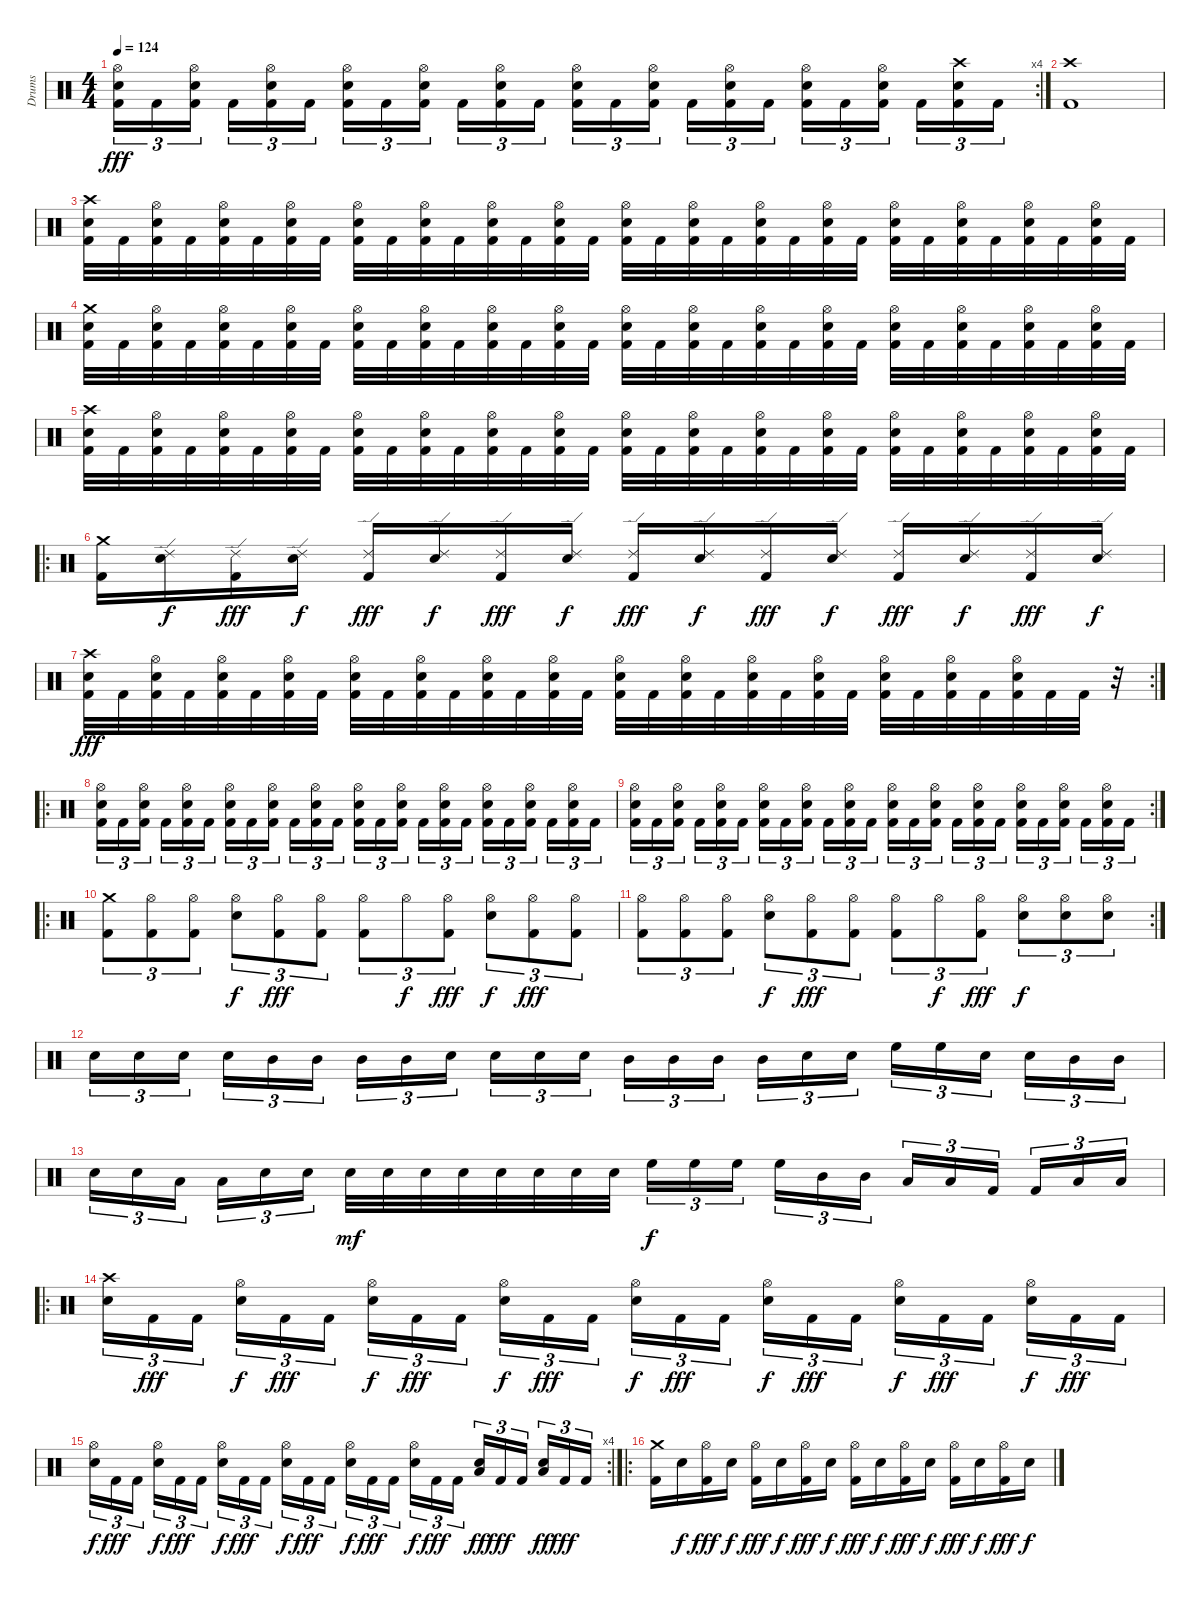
\track ("Drums" "Drums") {instrument percussion}
\staff {score}
\articulation defaults
\rc 4
\ts (4 4)
\tempo 124
\clef neutral
\ks c
("Hi-Hat (open)" "Electric Snare (hit)" "Kick (hit) 2").16{tu (3 2) dy fff} "Kick (hit) 2".16{tu (3 2)} ("Hi-Hat (open)" "Electric Snare (hit)" "Kick (hit) 2").16{tu (3 2)} "Kick (hit) 2".16{tu (3 2)} ("Hi-Hat (open)" "Electric Snare (hit)" "Kick (hit) 2").16{tu (3 2)} "Kick (hit) 2".16{tu (3 2)} ("Hi-Hat (open)" "Electric Snare (hit)" "Kick (hit) 2").16{tu (3 2)} "Kick (hit) 2".16{tu (3 2)} ("Hi-Hat (open)" "Electric Snare (hit)" "Kick (hit) 2").16{tu (3 2)} "Kick (hit) 2".16{tu (3 2)} ("Hi-Hat (open)" "Electric Snare (hit)" "Kick (hit) 2").16{tu (3 2)} "Kick (hit) 2".16{tu (3 2)} ("Hi-Hat (open)" "Electric Snare (hit)" "Kick (hit) 2").16{tu (3 2)} "Kick (hit) 2".16{tu (3 2)} ("Hi-Hat (open)" "Electric Snare (hit)" "Kick (hit) 2").16{tu (3 2)} "Kick (hit) 2".16{tu (3 2)} ("Hi-Hat (open)" "Electric Snare (hit)" "Kick (hit) 2").16{tu (3 2)} "Kick (hit) 2".16{tu (3 2)} ("Hi-Hat (open)" "Electric Snare (hit)" "Kick (hit) 2").16{tu (3 2)} "Kick (hit) 2".16{tu (3 2)} ("Hi-Hat (open)" "Electric Snare (hit)" "Kick (hit) 2").16{tu (3 2)} "Kick (hit) 2".16{tu (3 2)} ("Crash high (hit)" "Electric Snare (hit)" "Kick (hit) 2").16{tu (3 2)} "Kick (hit) 2".16{tu (3 2)} |
("Crash high (hit)" "Kick (hit) 2").1 |
("Crash high (hit)" "Electric Snare (hit)" "Kick (hit) 2").32 "Kick (hit) 2".32 ("Hi-Hat (open)" "Electric Snare (hit)" "Kick (hit) 2").32 "Kick (hit) 2".32 ("Hi-Hat (open)" "Electric Snare (hit)" "Kick (hit) 2").32 "Kick (hit) 2".32 ("Hi-Hat (open)" "Electric Snare (hit)" "Kick (hit) 2").32 "Kick (hit) 2".32 ("Hi-Hat (open)" "Electric Snare (hit)" "Kick (hit) 2").32 "Kick (hit) 2".32 ("Hi-Hat (open)" "Electric Snare (hit)" "Kick (hit) 2").32 "Kick (hit) 2".32 ("Hi-Hat (open)" "Electric Snare (hit)" "Kick (hit) 2").32 "Kick (hit) 2".32 ("Hi-Hat (open)" "Electric Snare (hit)" "Kick (hit) 2").32 "Kick (hit) 2".32 ("Hi-Hat (open)" "Electric Snare (hit)" "Kick (hit) 2").32 "Kick (hit) 2".32 ("Hi-Hat (open)" "Electric Snare (hit)" "Kick (hit) 2").32 "Kick (hit) 2".32 ("Hi-Hat (open)" "Electric Snare (hit)" "Kick (hit) 2").32 "Kick (hit) 2".32 ("Hi-Hat (open)" "Electric Snare (hit)" "Kick (hit) 2").32 "Kick (hit) 2".32 ("Hi-Hat (open)" "Electric Snare (hit)" "Kick (hit) 2").32 "Kick (hit) 2".32 ("Hi-Hat (open)" "Electric Snare (hit)" "Kick (hit) 2").32 "Kick (hit) 2".32 ("Hi-Hat (open)" "Electric Snare (hit)" "Kick (hit) 2").32 "Kick (hit) 2".32 ("Hi-Hat (open)" "Electric Snare (hit)" "Kick (hit) 2").32 "Kick (hit) 2".32 |
("Crash medium (hit)" "Electric Snare (hit)" "Kick (hit) 2").32 "Kick (hit) 2".32 ("Hi-Hat (open)" "Electric Snare (hit)" "Kick (hit) 2").32 "Kick (hit) 2".32 ("Hi-Hat (open)" "Electric Snare (hit)" "Kick (hit) 2").32 "Kick (hit) 2".32 ("Hi-Hat (open)" "Electric Snare (hit)" "Kick (hit) 2").32 "Kick (hit) 2".32 ("Hi-Hat (open)" "Electric Snare (hit)" "Kick (hit) 2").32 "Kick (hit) 2".32 ("Hi-Hat (open)" "Electric Snare (hit)" "Kick (hit) 2").32 "Kick (hit) 2".32 ("Hi-Hat (open)" "Electric Snare (hit)" "Kick (hit) 2").32 "Kick (hit) 2".32 ("Hi-Hat (open)" "Electric Snare (hit)" "Kick (hit) 2").32 "Kick (hit) 2".32 ("Hi-Hat (open)" "Electric Snare (hit)" "Kick (hit) 2").32 "Kick (hit) 2".32 ("Hi-Hat (open)" "Electric Snare (hit)" "Kick (hit) 2").32 "Kick (hit) 2".32 ("Hi-Hat (open)" "Electric Snare (hit)" "Kick (hit) 2").32 "Kick (hit) 2".32 ("Hi-Hat (open)" "Electric Snare (hit)" "Kick (hit) 2").32 "Kick (hit) 2".32 ("Hi-Hat (open)" "Electric Snare (hit)" "Kick (hit) 2").32 "Kick (hit) 2".32 ("Hi-Hat (open)" "Electric Snare (hit)" "Kick (hit) 2").32 "Kick (hit) 2".32 ("Hi-Hat (open)" "Electric Snare (hit)" "Kick (hit) 2").32 "Kick (hit) 2".32 ("Hi-Hat (open)" "Electric Snare (hit)" "Kick (hit) 2").32 "Kick (hit) 2".32 |
("Crash high (hit)" "Electric Snare (hit)" "Kick (hit) 2").32 "Kick (hit) 2".32 ("Hi-Hat (open)" "Electric Snare (hit)" "Kick (hit) 2").32 "Kick (hit) 2".32 ("Hi-Hat (open)" "Electric Snare (hit)" "Kick (hit) 2").32 "Kick (hit) 2".32 ("Hi-Hat (open)" "Electric Snare (hit)" "Kick (hit) 2").32 "Kick (hit) 2".32 ("Hi-Hat (open)" "Electric Snare (hit)" "Kick (hit) 2").32 "Kick (hit) 2".32 ("Hi-Hat (open)" "Electric Snare (hit)" "Kick (hit) 2").32 "Kick (hit) 2".32 ("Hi-Hat (open)" "Electric Snare (hit)" "Kick (hit) 2").32 "Kick (hit) 2".32 ("Hi-Hat (open)" "Electric Snare (hit)" "Kick (hit) 2").32 "Kick (hit) 2".32 ("Hi-Hat (open)" "Electric Snare (hit)" "Kick (hit) 2").32 "Kick (hit) 2".32 ("Hi-Hat (open)" "Electric Snare (hit)" "Kick (hit) 2").32 "Kick (hit) 2".32 ("Hi-Hat (open)" "Electric Snare (hit)" "Kick (hit) 2").32 "Kick (hit) 2".32 ("Hi-Hat (open)" "Electric Snare (hit)" "Kick (hit) 2").32 "Kick (hit) 2".32 ("Hi-Hat (open)" "Electric Snare (hit)" "Kick (hit) 2").32 "Kick (hit) 2".32 ("Hi-Hat (open)" "Electric Snare (hit)" "Kick (hit) 2").32 "Kick (hit) 2".32 ("Hi-Hat (open)" "Electric Snare (hit)" "Kick (hit) 2").32 "Kick (hit) 2".32 ("Hi-Hat (open)" "Electric Snare (hit)" "Kick (hit) 2").32 "Kick (hit) 2".32 |
\ro
("Crash medium (hit)" "Kick (hit) 2").16 ("Ride (edge) 2" "Electric Snare (hit)").16{dy f} ("Ride (edge) 2" "Kick (hit) 2").16{dy fff} ("Ride (edge) 2" "Electric Snare (hit)").16{dy f} ("Ride (edge) 2" "Kick (hit) 2").16{dy fff} ("Ride (edge) 2" "Electric Snare (hit)").16{dy f} ("Ride (edge) 2" "Kick (hit) 2").16{dy fff} ("Ride (edge) 2" "Electric Snare (hit)").16{dy f} ("Ride (edge) 2" "Kick (hit) 2").16{dy fff} ("Ride (edge) 2" "Electric Snare (hit)").16{dy f} ("Ride (edge) 2" "Kick (hit) 2").16{dy fff} ("Ride (edge) 2" "Electric Snare (hit)").16{dy f} ("Ride (edge) 2" "Kick (hit) 2").16{dy fff} ("Ride (edge) 2" "Electric Snare (hit)").16{dy f} ("Ride (edge) 2" "Kick (hit) 2").16{dy fff} ("Ride (edge) 2" "Electric Snare (hit)").16{dy f} |
\rc 2
("Crash high (hit)" "Electric Snare (hit)" "Kick (hit) 2").32{dy fff} "Kick (hit) 2".32 ("Hi-Hat (open)" "Electric Snare (hit)" "Kick (hit) 2").32 "Kick (hit) 2".32 ("Hi-Hat (open)" "Electric Snare (hit)" "Kick (hit) 2").32 "Kick (hit) 2".32 ("Hi-Hat (open)" "Electric Snare (hit)" "Kick (hit) 2").32 "Kick (hit) 2".32 ("Hi-Hat (open)" "Electric Snare (hit)" "Kick (hit) 2").32 "Kick (hit) 2".32 ("Hi-Hat (open)" "Electric Snare (hit)" "Kick (hit) 2").32 "Kick (hit) 2".32 ("Hi-Hat (open)" "Electric Snare (hit)" "Kick (hit) 2").32 "Kick (hit) 2".32 ("Hi-Hat (open)" "Electric Snare (hit)" "Kick (hit) 2").32 "Kick (hit) 2".32 ("Hi-Hat (open)" "Electric Snare (hit)" "Kick (hit) 2").32 "Kick (hit) 2".32 ("Hi-Hat (open)" "Electric Snare (hit)" "Kick (hit) 2").32 "Kick (hit) 2".32 ("Hi-Hat (open)" "Electric Snare (hit)" "Kick (hit) 2").32 "Kick (hit) 2".32 ("Hi-Hat (open)" "Electric Snare (hit)" "Kick (hit) 2").32 "Kick (hit) 2".32 ("Hi-Hat (open)" "Electric Snare (hit)" "Kick (hit) 2").32 "Kick (hit) 2".32 ("Hi-Hat (open)" "Electric Snare (hit)" "Kick (hit) 2").32 "Kick (hit) 2".32 ("Hi-Hat (open)" "Electric Snare (hit)" "Kick (hit) 2").32 "Kick (hit) 2".32 "Kick (hit) 2".32 r.32 |
\ro
("Hi-Hat (open)" "Electric Snare (hit)" "Kick (hit) 2").16{tu (3 2)} "Kick (hit) 2".16{tu (3 2)} ("Hi-Hat (open)" "Electric Snare (hit)" "Kick (hit) 2").16{tu (3 2)} "Kick (hit) 2".16{tu (3 2)} ("Hi-Hat (open)" "Electric Snare (hit)" "Kick (hit) 2").16{tu (3 2)} "Kick (hit) 2".16{tu (3 2)} ("Hi-Hat (open)" "Electric Snare (hit)" "Kick (hit) 2").16{tu (3 2)} "Kick (hit) 2".16{tu (3 2)} ("Hi-Hat (open)" "Electric Snare (hit)" "Kick (hit) 2").16{tu (3 2)} "Kick (hit) 2".16{tu (3 2)} ("Hi-Hat (open)" "Electric Snare (hit)" "Kick (hit) 2").16{tu (3 2)} "Kick (hit) 2".16{tu (3 2)} ("Hi-Hat (open)" "Electric Snare (hit)" "Kick (hit) 2").16{tu (3 2)} "Kick (hit) 2".16{tu (3 2)} ("Hi-Hat (open)" "Electric Snare (hit)" "Kick (hit) 2").16{tu (3 2)} "Kick (hit) 2".16{tu (3 2)} ("Hi-Hat (open)" "Electric Snare (hit)" "Kick (hit) 2").16{tu (3 2)} "Kick (hit) 2".16{tu (3 2)} ("Hi-Hat (open)" "Electric Snare (hit)" "Kick (hit) 2").16{tu (3 2)} "Kick (hit) 2".16{tu (3 2)} ("Hi-Hat (open)" "Electric Snare (hit)" "Kick (hit) 2").16{tu (3 2)} "Kick (hit) 2".16{tu (3 2)} ("Hi-Hat (open)" "Electric Snare (hit)" "Kick (hit) 2").16{tu (3 2)} "Kick (hit) 2".16{tu (3 2)} |
\rc 2
("Hi-Hat (open)" "Electric Snare (hit)" "Kick (hit) 2").16{tu (3 2)} "Kick (hit) 2".16{tu (3 2)} ("Hi-Hat (open)" "Electric Snare (hit)" "Kick (hit) 2").16{tu (3 2)} "Kick (hit) 2".16{tu (3 2)} ("Hi-Hat (open)" "Electric Snare (hit)" "Kick (hit) 2").16{tu (3 2)} "Kick (hit) 2".16{tu (3 2)} ("Hi-Hat (open)" "Electric Snare (hit)" "Kick (hit) 2").16{tu (3 2)} "Kick (hit) 2".16{tu (3 2)} ("Hi-Hat (open)" "Electric Snare (hit)" "Kick (hit) 2").16{tu (3 2)} "Kick (hit) 2".16{tu (3 2)} ("Hi-Hat (open)" "Electric Snare (hit)" "Kick (hit) 2").16{tu (3 2)} "Kick (hit) 2".16{tu (3 2)} ("Hi-Hat (open)" "Electric Snare (hit)" "Kick (hit) 2").16{tu (3 2)} "Kick (hit) 2".16{tu (3 2)} ("Hi-Hat (open)" "Electric Snare (hit)" "Kick (hit) 2").16{tu (3 2)} "Kick (hit) 2".16{tu (3 2)} ("Hi-Hat (open)" "Electric Snare (hit)" "Kick (hit) 2").16{tu (3 2)} "Kick (hit) 2".16{tu (3 2)} ("Hi-Hat (open)" "Electric Snare (hit)" "Kick (hit) 2").16{tu (3 2)} "Kick (hit) 2".16{tu (3 2)} ("Hi-Hat (open)" "Electric Snare (hit)" "Kick (hit) 2").16{tu (3 2)} "Kick (hit) 2".16{tu (3 2)} ("Hi-Hat (open)" "Electric Snare (hit)" "Kick (hit) 2").16{tu (3 2)} "Kick (hit) 2".16{tu (3 2)} |
\ro
("Crash medium (hit)" "Kick (hit) 2").8{tu (3 2)} ("Hi-Hat (open)" "Kick (hit) 2").8{tu (3 2)} ("Hi-Hat (open)" "Kick (hit) 2").8{tu (3 2)} ("Hi-Hat (open)" "Electric Snare (hit)").8{tu (3 2) dy f} ("Hi-Hat (open)" "Kick (hit) 2").8{tu (3 2) dy fff} ("Hi-Hat (open)" "Kick (hit) 2").8{tu (3 2)} ("Hi-Hat (open)" "Kick (hit) 2").8{tu (3 2)} "Hi-Hat (open)".8{tu (3 2) dy f} ("Hi-Hat (open)" "Kick (hit) 2").8{tu (3 2) dy fff} ("Hi-Hat (open)" "Electric Snare (hit)").8{tu (3 2) dy f} ("Hi-Hat (open)" "Kick (hit) 2").8{tu (3 2) dy fff} ("Hi-Hat (open)" "Kick (hit) 2").8{tu (3 2)} |
\rc 2
("Hi-Hat (open)" "Kick (hit) 2").8{tu (3 2)} ("Hi-Hat (open)" "Kick (hit) 2").8{tu (3 2)} ("Hi-Hat (open)" "Kick (hit) 2").8{tu (3 2)} ("Hi-Hat (open)" "Electric Snare (hit)").8{tu (3 2) dy f} ("Hi-Hat (open)" "Kick (hit) 2").8{tu (3 2) dy fff} ("Hi-Hat (open)" "Kick (hit) 2").8{tu (3 2)} ("Hi-Hat (open)" "Kick (hit) 2").8{tu (3 2)} "Hi-Hat (open)".8{tu (3 2) dy f} ("Hi-Hat (open)" "Kick (hit) 2").8{tu (3 2) dy fff} ("Hi-Hat (open)" "Electric Snare (hit)").8{tu (3 2) dy f} ("Hi-Hat (open)" "Electric Snare (hit)").8{tu (3 2)} ("Hi-Hat (open)" "Electric Snare (hit)").8{tu (3 2)} |
"Electric Snare (hit)".16{tu (3 2)} "Electric Snare (hit)".16{tu (3 2)} "Electric Snare (hit)".16{tu (3 2)} "Electric Snare (hit)".16{tu (3 2)} "Mid Tom (hit)".16{tu (3 2)} "Mid Tom (hit)".16{tu (3 2)} "Mid Tom (hit)".16{tu (3 2)} "Mid Tom (hit)".16{tu (3 2)} "Electric Snare (hit)".16{tu (3 2)} "Electric Snare (hit)".16{tu (3 2)} "Electric Snare (hit)".16{tu (3 2)} "Electric Snare (hit)".16{tu (3 2)} "Mid Tom (hit)".16{tu (3 2)} "Mid Tom (hit)".16{tu (3 2)} "Mid Tom (hit)".16{tu (3 2)} "Mid Tom (hit)".16{tu (3 2)} "Electric Snare (hit)".16{tu (3 2)} "Electric Snare (hit)".16{tu (3 2)} "High Floor Tom (hit)".16{tu (3 2)} "High Floor Tom (hit)".16{tu (3 2)} "Electric Snare (hit)".16{tu (3 2)} "Electric Snare (hit)".16{tu (3 2)} "Mid Tom (hit)".16{tu (3 2)} "Mid Tom (hit)".16{tu (3 2)} |
"Electric Snare (hit)".16{tu (3 2)} "Electric Snare (hit)".16{tu (3 2)} "Low Tom (hit)".16{tu (3 2)} "Low Tom (hit)".16{tu (3 2)} "Electric Snare (hit)".16{tu (3 2)} "Electric Snare (hit)".16{tu (3 2)} "Electric Snare (hit)".32{dy mf} "Electric Snare (hit)".32 "Electric Snare (hit)".32 "Electric Snare (hit)".32 "Electric Snare (hit)".32 "Electric Snare (hit)".32 "Electric Snare (hit)".32 "Electric Snare (hit)".32 "High Floor Tom (hit)".16{tu (3 2) dy f} "High Floor Tom (hit)".16{tu (3 2)} "High Floor Tom (hit)".16{tu (3 2)} "High Floor Tom (hit)".16{tu (3 2)} "Mid Tom (hit)".16{tu (3 2)} "Mid Tom (hit)".16{tu (3 2)} "Low Tom (hit)".16{tu (3 2)} "Low Tom (hit)".16{tu (3 2)} "Kick (hit) 2".16{tu (3 2)} "Kick (hit) 2".16{tu (3 2)} "Low Tom (hit)".16{tu (3 2)} "Low Tom (hit)".16{tu (3 2)} |
\ro
("Crash high (hit)" "Electric Snare (hit)").16{tu (3 2)} "Kick (hit) 2".16{tu (3 2) dy fff} "Kick (hit) 2".16{tu (3 2)} ("Hi-Hat (open)" "Electric Snare (hit)").16{tu (3 2) dy f} "Kick (hit) 2".16{tu (3 2) dy fff} "Kick (hit) 2".16{tu (3 2)} ("Hi-Hat (open)" "Electric Snare (hit)").16{tu (3 2) dy f} "Kick (hit) 2".16{tu (3 2) dy fff} "Kick (hit) 2".16{tu (3 2)} ("Hi-Hat (open)" "Electric Snare (hit)").16{tu (3 2) dy f} "Kick (hit) 2".16{tu (3 2) dy fff} "Kick (hit) 2".16{tu (3 2)} ("Hi-Hat (open)" "Electric Snare (hit)").16{tu (3 2) dy f} "Kick (hit) 2".16{tu (3 2) dy fff} "Kick (hit) 2".16{tu (3 2)} ("Hi-Hat (open)" "Electric Snare (hit)").16{tu (3 2) dy f} "Kick (hit) 2".16{tu (3 2) dy fff} "Kick (hit) 2".16{tu (3 2)} ("Hi-Hat (open)" "Electric Snare (hit)").16{tu (3 2) dy f} "Kick (hit) 2".16{tu (3 2) dy fff} "Kick (hit) 2".16{tu (3 2)} ("Hi-Hat (open)" "Electric Snare (hit)").16{tu (3 2) dy f} "Kick (hit) 2".16{tu (3 2) dy fff} "Kick (hit) 2".16{tu (3 2)} |
\rc 4
("Hi-Hat (open)" "Electric Snare (hit)").16{tu (3 2) dy f} "Kick (hit) 2".16{tu (3 2) dy fff} "Kick (hit) 2".16{tu (3 2)} ("Hi-Hat (open)" "Electric Snare (hit)").16{tu (3 2) dy f} "Kick (hit) 2".16{tu (3 2) dy fff} "Kick (hit) 2".16{tu (3 2)} ("Hi-Hat (open)" "Electric Snare (hit)").16{tu (3 2) dy f} "Kick (hit) 2".16{tu (3 2) dy fff} "Kick (hit) 2".16{tu (3 2)} ("Hi-Hat (open)" "Electric Snare (hit)").16{tu (3 2) dy f} "Kick (hit) 2".16{tu (3 2) dy fff} "Kick (hit) 2".16{tu (3 2)} ("Hi-Hat (open)" "Electric Snare (hit)").16{tu (3 2) dy f} "Kick (hit) 2".16{tu (3 2) dy fff} "Kick (hit) 2".16{tu (3 2)} ("Hi-Hat (open)" "Electric Snare (hit)").16{tu (3 2) dy f} "Kick (hit) 2".16{tu (3 2) dy fff} "Kick (hit) 2".16{tu (3 2)} ("Electric Snare (hit)" "Low Tom (hit)").16{tu (3 2) dy ff} "Kick (hit) 2".16{tu (3 2) dy fff} "Kick (hit) 2".16{tu (3 2)} ("Electric Snare (hit)" "Low Tom (hit)").16{tu (3 2) dy ff} "Kick (hit) 2".16{tu (3 2) dy fff} "Kick (hit) 2".16{tu (3 2)} |
\ro
("Crash medium (hit)" "Kick (hit) 2").16 "Electric Snare (hit)".16{dy f} ("Hi-Hat (open)" "Kick (hit) 2").16{dy fff} "Electric Snare (hit)".16{dy f} ("Hi-Hat (open)" "Kick (hit) 2").16{dy fff} "Electric Snare (hit)".16{dy f} ("Hi-Hat (open)" "Kick (hit) 2").16{dy fff} "Electric Snare (hit)".16{dy f} ("Hi-Hat (open)" "Kick (hit) 2").16{dy fff} "Electric Snare (hit)".16{dy f} ("Hi-Hat (open)" "Kick (hit) 2").16{dy fff} "Electric Snare (hit)".16{dy f} ("Hi-Hat (open)" "Kick (hit) 2").16{dy fff} "Electric Snare (hit)".16{dy f} ("Hi-Hat (open)" "Kick (hit) 2").16{dy fff} "Electric Snare (hit)".16{dy f}
